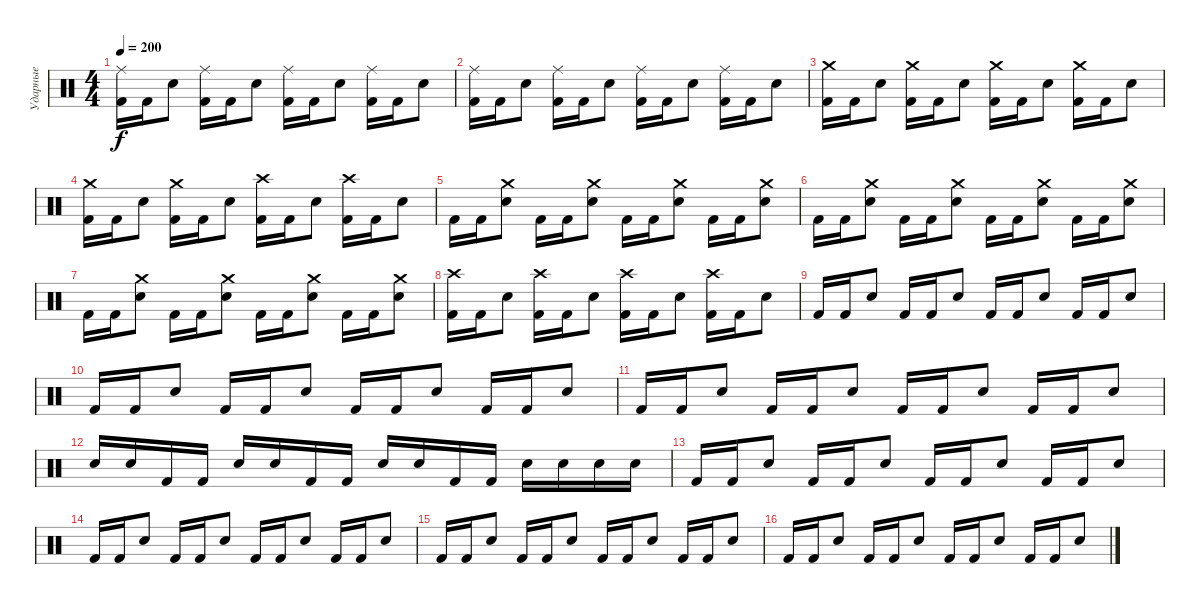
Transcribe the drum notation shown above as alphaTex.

\track ("Ударные" "Ударные") {instrument percussion}
\staff {score}
\articulation defaults
\ts (4 4)
\tempo 200
\clef neutral
\ks c
("Kick (hit) 2" "Ride (middle)").16{dy f} "Kick (hit) 2".16 "Electric Snare (hit)".8 ("Kick (hit) 2" "Ride (middle)").16 "Kick (hit) 2".16 "Electric Snare (hit)".8 ("Kick (hit) 2" "Ride (middle)").16 "Kick (hit) 2".16 "Electric Snare (hit)".8 ("Kick (hit) 2" "Ride (middle)").16 "Kick (hit) 2".16 "Electric Snare (hit)".8 |
("Kick (hit) 2" "Ride (middle)").16 "Kick (hit) 2".16 "Electric Snare (hit)".8 ("Kick (hit) 2" "Ride (middle)").16 "Kick (hit) 2".16 "Electric Snare (hit)".8 ("Kick (hit) 2" "Ride (middle)").16 "Kick (hit) 2".16 "Electric Snare (hit)".8 ("Kick (hit) 2" "Ride (middle)").16 "Kick (hit) 2".16 "Electric Snare (hit)".8 |
("Kick (hit) 2" "Crash medium (hit)").16 "Kick (hit) 2".16 "Electric Snare (hit)".8 ("Kick (hit) 2" "Crash medium (hit)").16 "Kick (hit) 2".16 "Electric Snare (hit)".8 ("Kick (hit) 2" "Crash medium (hit)").16 "Kick (hit) 2".16 "Electric Snare (hit)".8 ("Kick (hit) 2" "Crash medium (hit)").16 "Kick (hit) 2".16 "Electric Snare (hit)".8 |
("Kick (hit) 2" "Crash medium (hit)").16 "Kick (hit) 2".16 "Electric Snare (hit)".8 ("Kick (hit) 2" "Crash medium (hit)").16 "Kick (hit) 2".16 "Electric Snare (hit)".8 ("Kick (hit) 2" "Crash high (hit)").16 "Kick (hit) 2".16 "Electric Snare (hit)".8 ("Kick (hit) 2" "Crash high (hit)").16 "Kick (hit) 2".16 "Electric Snare (hit)".8 |
"Kick (hit) 2".16 "Kick (hit) 2".16 ("Electric Snare (hit)" "Crash medium (hit)").8 "Kick (hit) 2".16 "Kick (hit) 2".16 ("Electric Snare (hit)" "Crash medium (hit)").8 "Kick (hit) 2".16 "Kick (hit) 2".16 ("Electric Snare (hit)" "Crash medium (hit)").8 "Kick (hit) 2".16 "Kick (hit) 2".16 ("Electric Snare (hit)" "Crash medium (hit)").8 |
"Kick (hit) 2".16 "Kick (hit) 2".16 ("Electric Snare (hit)" "Crash medium (hit)").8 "Kick (hit) 2".16 "Kick (hit) 2".16 ("Electric Snare (hit)" "Crash medium (hit)").8 "Kick (hit) 2".16 "Kick (hit) 2".16 ("Electric Snare (hit)" "Crash medium (hit)").8 "Kick (hit) 2".16 "Kick (hit) 2".16 ("Electric Snare (hit)" "Crash medium (hit)").8 |
"Kick (hit) 2".16 "Kick (hit) 2".16 ("Electric Snare (hit)" "Crash medium (hit)").8 "Kick (hit) 2".16 "Kick (hit) 2".16 ("Electric Snare (hit)" "Crash medium (hit)").8 "Kick (hit) 2".16 "Kick (hit) 2".16 ("Electric Snare (hit)" "Crash medium (hit)").8 "Kick (hit) 2".16 "Kick (hit) 2".16 ("Electric Snare (hit)" "Crash medium (hit)").8 |
("Kick (hit) 2" "Crash high (hit)").16 "Kick (hit) 2".16 "Electric Snare (hit)".8 ("Kick (hit) 2" "Crash high (hit)").16 "Kick (hit) 2".16 "Electric Snare (hit)".8 ("Kick (hit) 2" "Crash high (hit)").16 "Kick (hit) 2".16 "Electric Snare (hit)".8 ("Kick (hit) 2" "Crash high (hit)").16 "Kick (hit) 2".16 "Electric Snare (hit)".8 |
"Kick (hit) 2".16 "Kick (hit) 2".16 "Electric Snare (hit)".8 "Kick (hit) 2".16 "Kick (hit) 2".16 "Electric Snare (hit)".8 "Kick (hit) 2".16 "Kick (hit) 2".16 "Electric Snare (hit)".8 "Kick (hit) 2".16 "Kick (hit) 2".16 "Electric Snare (hit)".8 |
"Kick (hit) 2".16 "Kick (hit) 2".16 "Electric Snare (hit)".8 "Kick (hit) 2".16 "Kick (hit) 2".16 "Electric Snare (hit)".8 "Kick (hit) 2".16 "Kick (hit) 2".16 "Electric Snare (hit)".8 "Kick (hit) 2".16 "Kick (hit) 2".16 "Electric Snare (hit)".8 |
"Kick (hit) 2".16 "Kick (hit) 2".16 "Electric Snare (hit)".8 "Kick (hit) 2".16 "Kick (hit) 2".16 "Electric Snare (hit)".8 "Kick (hit) 2".16 "Kick (hit) 2".16 "Electric Snare (hit)".8 "Kick (hit) 2".16 "Kick (hit) 2".16 "Electric Snare (hit)".8 |
"Electric Snare (hit)".16 "Electric Snare (hit)".16 "Kick (hit) 2".16 "Kick (hit) 2".16 "Electric Snare (hit)".16 "Electric Snare (hit)".16 "Kick (hit) 2".16 "Kick (hit) 2".16 "Electric Snare (hit)".16 "Electric Snare (hit)".16 "Kick (hit) 2".16 "Kick (hit) 2".16 "Electric Snare (hit)".16 "Electric Snare (hit)".16 "Electric Snare (hit)".16 "Electric Snare (hit)".16 |
"Kick (hit) 2".16 "Kick (hit) 2".16 "Electric Snare (hit)".8 "Kick (hit) 2".16 "Kick (hit) 2".16 "Electric Snare (hit)".8 "Kick (hit) 2".16 "Kick (hit) 2".16 "Electric Snare (hit)".8 "Kick (hit) 2".16 "Kick (hit) 2".16 "Electric Snare (hit)".8 |
"Kick (hit) 2".16 "Kick (hit) 2".16 "Electric Snare (hit)".8 "Kick (hit) 2".16 "Kick (hit) 2".16 "Electric Snare (hit)".8 "Kick (hit) 2".16 "Kick (hit) 2".16 "Electric Snare (hit)".8 "Kick (hit) 2".16 "Kick (hit) 2".16 "Electric Snare (hit)".8 |
"Kick (hit) 2".16 "Kick (hit) 2".16 "Electric Snare (hit)".8 "Kick (hit) 2".16 "Kick (hit) 2".16 "Electric Snare (hit)".8 "Kick (hit) 2".16 "Kick (hit) 2".16 "Electric Snare (hit)".8 "Kick (hit) 2".16 "Kick (hit) 2".16 "Electric Snare (hit)".8 |
"Kick (hit) 2".16 "Kick (hit) 2".16 "Electric Snare (hit)".8 "Kick (hit) 2".16 "Kick (hit) 2".16 "Electric Snare (hit)".8 "Kick (hit) 2".16 "Kick (hit) 2".16 "Electric Snare (hit)".8 "Kick (hit) 2".16 "Kick (hit) 2".16 "Electric Snare (hit)".8
